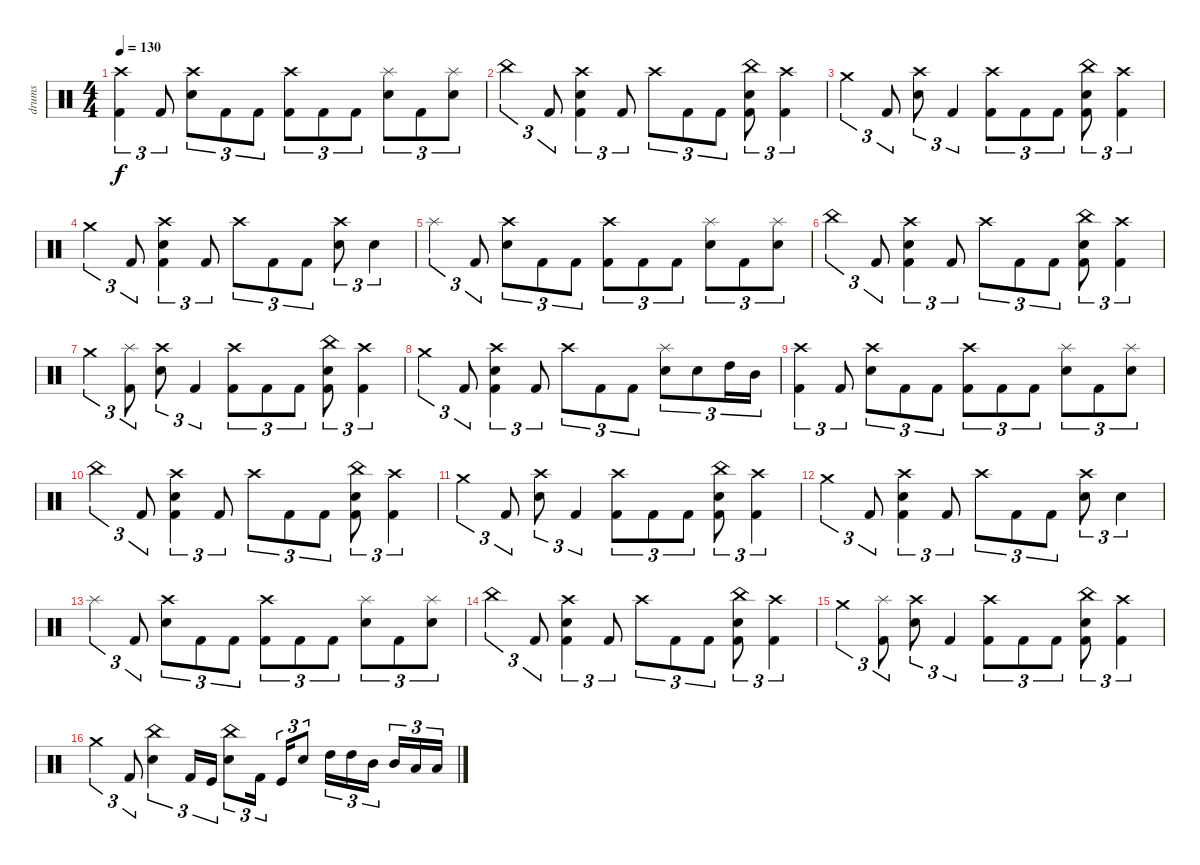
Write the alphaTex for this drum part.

\track ("drums" "drums") {instrument percussion}
\staff {score}
\articulation defaults
\ts (4 4)
\tempo 130
\clef neutral
\ks c
("Crash high (hit)" "Kick (hit) 2").4{tu (3 2) dy f} "Kick (hit) 2".8{tu (3 2)} ("Crash high (hit)" "Snare (hit) 2").8{tu (3 2)} "Kick (hit) 2".8{tu (3 2)} "Kick (hit) 2".8{tu (3 2)} ("Crash high (hit)" "Kick (hit) 2").8{tu (3 2)} "Kick (hit) 2".8{tu (3 2)} "Kick (hit) 2".8{tu (3 2)} ("Splash (hit)" "Snare (hit) 2").8{tu (3 2)} "Kick (hit) 2".8{tu (3 2)} ("Splash (hit)" "Snare (hit) 2").8{tu (3 2)} |
"China (hit)".4{tu (3 2)} "Kick (hit) 2".8{tu (3 2)} ("Crash high (hit)" "Snare (hit) 2" "Kick (hit) 2").4{tu (3 2)} "Kick (hit) 2".8{tu (3 2)} "Crash high (hit)".8{tu (3 2)} "Kick (hit) 2".8{tu (3 2)} "Kick (hit) 2".8{tu (3 2)} ("China (hit)" "Snare (hit) 2" "Kick (hit) 2").8{tu (3 2)} ("Crash high (hit)" "Kick (hit) 2").4{tu (3 2)} |
"Crash medium (hit)".4{tu (3 2)} "Kick (hit) 2".8{tu (3 2)} ("Crash high (hit)" "Snare (hit) 2").8{tu (3 2)} "Kick (hit) 2".4{tu (3 2)} ("Crash high (hit)" "Kick (hit) 2").8{tu (3 2)} "Kick (hit) 2".8{tu (3 2)} "Kick (hit) 2".8{tu (3 2)} ("China (hit)" "Snare (hit) 2" "Kick (hit) 2").8{tu (3 2)} ("Crash high (hit)" "Kick (hit) 2").4{tu (3 2)} |
"Crash medium (hit)".4{tu (3 2)} "Kick (hit) 2".8{tu (3 2)} ("Crash high (hit)" "Snare (hit) 2" "Kick (hit) 2").4{tu (3 2)} "Kick (hit) 2".8{tu (3 2)} "Crash high (hit)".8{tu (3 2)} "Kick (hit) 2".8{tu (3 2)} "Kick (hit) 2".8{tu (3 2)} ("Crash high (hit)" "Snare (hit) 2").8{tu (3 2)} "Snare (hit) 2".4{tu (3 2)} |
"Splash (hit)".4{tu (3 2)} "Kick (hit) 2".8{tu (3 2)} ("Crash high (hit)" "Snare (hit) 2").8{tu (3 2)} "Kick (hit) 2".8{tu (3 2)} "Kick (hit) 2".8{tu (3 2)} ("Crash high (hit)" "Kick (hit) 2").8{tu (3 2)} "Kick (hit) 2".8{tu (3 2)} "Kick (hit) 2".8{tu (3 2)} ("Splash (hit)" "Snare (hit) 2").8{tu (3 2)} "Kick (hit) 2".8{tu (3 2)} ("Splash (hit)" "Snare (hit) 2").8{tu (3 2)} |
"China (hit)".4{tu (3 2)} "Kick (hit) 2".8{tu (3 2)} ("Crash high (hit)" "Snare (hit) 2" "Kick (hit) 2").4{tu (3 2)} "Kick (hit) 2".8{tu (3 2)} "Crash high (hit)".8{tu (3 2)} "Kick (hit) 2".8{tu (3 2)} "Kick (hit) 2".8{tu (3 2)} ("China (hit)" "Snare (hit) 2" "Kick (hit) 2").8{tu (3 2)} ("Crash high (hit)" "Kick (hit) 2").4{tu (3 2)} |
"Crash medium (hit)".4{tu (3 2)} ("Splash (hit)" "Kick (hit) 2").8{tu (3 2)} ("Crash high (hit)" "Snare (hit) 2").8{tu (3 2)} "Kick (hit) 2".4{tu (3 2)} ("Crash high (hit)" "Kick (hit) 2").8{tu (3 2)} "Kick (hit) 2".8{tu (3 2)} "Kick (hit) 2".8{tu (3 2)} ("China (hit)" "Snare (hit) 2" "Kick (hit) 2").8{tu (3 2)} ("Crash high (hit)" "Kick (hit) 2").4{tu (3 2)} |
"Crash medium (hit)".4{tu (3 2)} "Kick (hit) 2".8{tu (3 2)} ("Crash high (hit)" "Snare (hit) 2" "Kick (hit) 2").4{tu (3 2)} "Kick (hit) 2".8{tu (3 2)} "Crash high (hit)".8{tu (3 2)} "Kick (hit) 2".8{tu (3 2)} "Kick (hit) 2".8{tu (3 2)} ("Splash (hit)" "Snare (hit) 2").8{tu (3 2)} "Snare (hit) 2".8{tu (3 2)} "High Tom (hit)".16{tu (3 2)} "Mid Tom (hit)".16{tu (3 2)} |
("Crash high (hit)" "Kick (hit) 2").4{tu (3 2)} "Kick (hit) 2".8{tu (3 2)} ("Crash high (hit)" "Snare (hit) 2").8{tu (3 2)} "Kick (hit) 2".8{tu (3 2)} "Kick (hit) 2".8{tu (3 2)} ("Crash high (hit)" "Kick (hit) 2").8{tu (3 2)} "Kick (hit) 2".8{tu (3 2)} "Kick (hit) 2".8{tu (3 2)} ("Splash (hit)" "Snare (hit) 2").8{tu (3 2)} "Kick (hit) 2".8{tu (3 2)} ("Splash (hit)" "Snare (hit) 2").8{tu (3 2)} |
"China (hit)".4{tu (3 2)} "Kick (hit) 2".8{tu (3 2)} ("Crash high (hit)" "Snare (hit) 2" "Kick (hit) 2").4{tu (3 2)} "Kick (hit) 2".8{tu (3 2)} "Crash high (hit)".8{tu (3 2)} "Kick (hit) 2".8{tu (3 2)} "Kick (hit) 2".8{tu (3 2)} ("China (hit)" "Snare (hit) 2" "Kick (hit) 2").8{tu (3 2)} ("Crash high (hit)" "Kick (hit) 2").4{tu (3 2)} |
"Crash medium (hit)".4{tu (3 2)} "Kick (hit) 2".8{tu (3 2)} ("Crash high (hit)" "Snare (hit) 2").8{tu (3 2)} "Kick (hit) 2".4{tu (3 2)} ("Crash high (hit)" "Kick (hit) 2").8{tu (3 2)} "Kick (hit) 2".8{tu (3 2)} "Kick (hit) 2".8{tu (3 2)} ("China (hit)" "Snare (hit) 2" "Kick (hit) 2").8{tu (3 2)} ("Crash high (hit)" "Kick (hit) 2").4{tu (3 2)} |
"Crash medium (hit)".4{tu (3 2)} "Kick (hit) 2".8{tu (3 2)} ("Crash high (hit)" "Snare (hit) 2" "Kick (hit) 2").4{tu (3 2)} "Kick (hit) 2".8{tu (3 2)} "Crash high (hit)".8{tu (3 2)} "Kick (hit) 2".8{tu (3 2)} "Kick (hit) 2".8{tu (3 2)} ("Crash high (hit)" "Snare (hit) 2").8{tu (3 2)} "Snare (hit) 2".4{tu (3 2)} |
"Splash (hit)".4{tu (3 2)} "Kick (hit) 2".8{tu (3 2)} ("Crash high (hit)" "Snare (hit) 2").8{tu (3 2)} "Kick (hit) 2".8{tu (3 2)} "Kick (hit) 2".8{tu (3 2)} ("Crash high (hit)" "Kick (hit) 2").8{tu (3 2)} "Kick (hit) 2".8{tu (3 2)} "Kick (hit) 2".8{tu (3 2)} ("Splash (hit)" "Snare (hit) 2").8{tu (3 2)} "Kick (hit) 2".8{tu (3 2)} ("Splash (hit)" "Snare (hit) 2").8{tu (3 2)} |
"China (hit)".4{tu (3 2)} "Kick (hit) 2".8{tu (3 2)} ("Crash high (hit)" "Snare (hit) 2" "Kick (hit) 2").4{tu (3 2)} "Kick (hit) 2".8{tu (3 2)} "Crash high (hit)".8{tu (3 2)} "Kick (hit) 2".8{tu (3 2)} "Kick (hit) 2".8{tu (3 2)} ("China (hit)" "Snare (hit) 2" "Kick (hit) 2").8{tu (3 2)} ("Crash high (hit)" "Kick (hit) 2").4{tu (3 2)} |
"Crash medium (hit)".4{tu (3 2)} ("Splash (hit)" "Kick (hit) 2").8{tu (3 2)} ("Crash high (hit)" "Snare (hit) 2").8{tu (3 2)} "Kick (hit) 2".4{tu (3 2)} ("Crash high (hit)" "Kick (hit) 2").8{tu (3 2)} "Kick (hit) 2".8{tu (3 2)} "Kick (hit) 2".8{tu (3 2)} ("China (hit)" "Snare (hit) 2" "Kick (hit) 2").8{tu (3 2)} ("Crash high (hit)" "Kick (hit) 2").4{tu (3 2)} |
"Crash medium (hit)".4{tu (3 2)} "Kick (hit) 2".8{tu (3 2)} ("China (hit)" "Snare (hit) 2").4{tu (3 2)} "Kick (hit) 2".16{tu (3 2)} "Kick (hit)".16{tu (3 2)} ("China (hit)" "Snare (hit) 2").8{tu (3 2)} "Kick (hit) 2".16{tu (3 2) beam splitsecondary} "Kick (hit)".16{tu (3 2)} "Snare (hit) 2".8{tu (3 2)} "High Tom (hit)".16{tu (3 2)} "High Tom (hit)".16{tu (3 2)} "Mid Tom (hit)".16{tu (3 2) beam splitsecondary} "Mid Tom (hit)".16{tu (3 2)} "Low Tom (hit)".16{tu (3 2)} "Low Tom (hit)".16{tu (3 2)}
